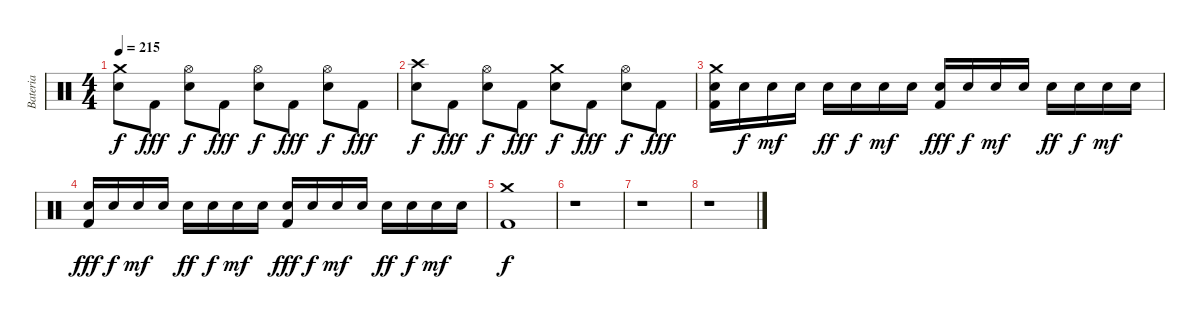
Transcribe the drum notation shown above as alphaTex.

\track ("Bateria" "Bateria") {instrument percussion}
\staff {score}
\articulation defaults
\ts (4 4)
\tempo 215
\clef neutral
\ks c
("Crash medium (hit)" "Electric Snare (hit)").8{dy f} "Kick (hit) 2".8{dy fff} ("Hi-Hat (open)" "Electric Snare (hit)").8{dy f} "Kick (hit) 2".8{dy fff} ("Hi-Hat (open)" "Electric Snare (hit)").8{dy f} "Kick (hit) 2".8{dy fff} ("Hi-Hat (open)" "Electric Snare (hit)").8{dy f} "Kick (hit) 2".8{dy fff} |
("Crash high (hit)" "Electric Snare (hit)").8{dy f} "Kick (hit) 2".8{dy fff} ("Hi-Hat (open)" "Electric Snare (hit)").8{dy f} "Kick (hit) 2".8{dy fff} ("Crash medium (hit)" "Electric Snare (hit)").8{dy f} "Kick (hit) 2".8{dy fff} ("Hi-Hat (open)" "Electric Snare (hit)").8{dy f} "Kick (hit) 2".8{dy fff} |
("Crash medium (hit)" "Electric Snare (hit)" "Kick (hit) 2").16 "Electric Snare (hit)".16{dy f} "Electric Snare (hit)".16{dy mf} "Electric Snare (hit)".16 "Electric Snare (hit)".16{dy ff} "Electric Snare (hit)".16{dy f} "Electric Snare (hit)".16{dy mf} "Electric Snare (hit)".16 ("Electric Snare (hit)" "Kick (hit) 2").16{dy fff} "Electric Snare (hit)".16{dy f} "Electric Snare (hit)".16{dy mf} "Electric Snare (hit)".16 "Electric Snare (hit)".16{dy ff} "Electric Snare (hit)".16{dy f} "Electric Snare (hit)".16{dy mf} "Electric Snare (hit)".16 |
("Electric Snare (hit)" "Kick (hit) 2").16{dy fff} "Electric Snare (hit)".16{dy f} "Electric Snare (hit)".16{dy mf} "Electric Snare (hit)".16 "Electric Snare (hit)".16{dy ff} "Electric Snare (hit)".16{dy f} "Electric Snare (hit)".16{dy mf} "Electric Snare (hit)".16 ("Electric Snare (hit)" "Kick (hit) 2").16{dy fff} "Electric Snare (hit)".16{dy f} "Electric Snare (hit)".16{dy mf} "Electric Snare (hit)".16 "Electric Snare (hit)".16{dy ff} "Electric Snare (hit)".16{dy f} "Electric Snare (hit)".16{dy mf} "Electric Snare (hit)".16 |
("Crash medium (hit)" "Kick (hit) 2").1{dy f} |
r.1 |
r.1 |
r.1
